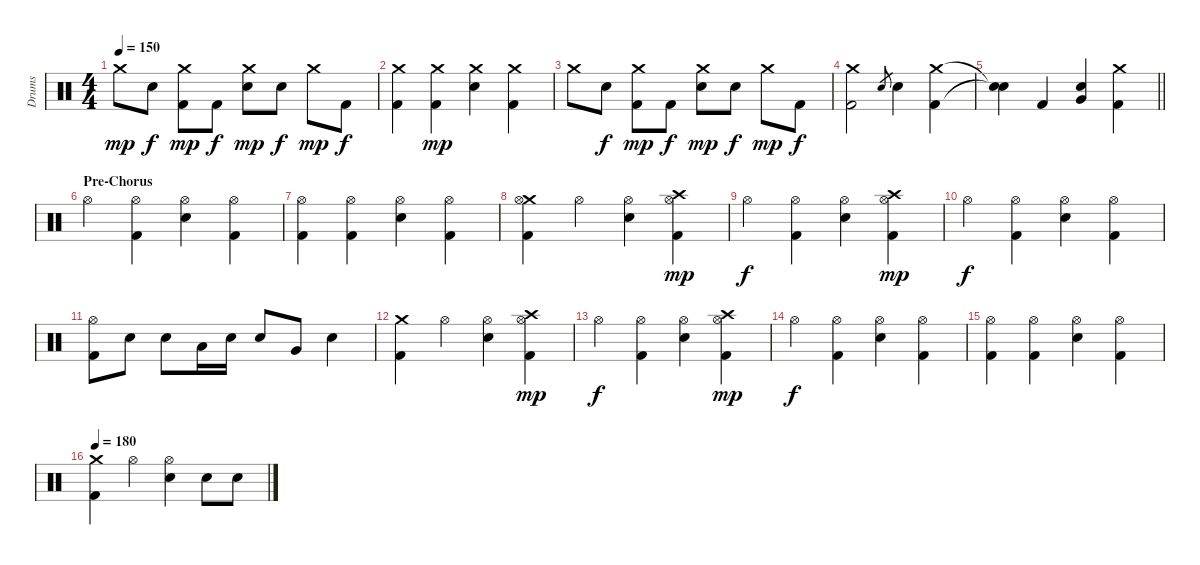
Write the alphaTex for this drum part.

\track ("Drums" "Drums") {instrument percussion}
\staff {score}
\articulation defaults
\ts (4 4)
\tempo 150
\clef neutral
\ks c "Crash medium (hit)".8{dy mp} "Snare (hit) 2".8{dy f}
("Crash medium (hit)" "Kick (hit) 2").8{dy mp} "Kick (hit) 2".8{dy f} ("Crash medium (hit)" "Snare (hit) 2").8{dy mp} "Snare (hit) 2".8{dy f} "Crash medium (hit)".8{dy mp} "Kick (hit) 2".8{dy f} |
("Crash medium (hit)" "Kick (hit) 2").4 ("Crash medium (hit)" "Kick (hit) 2").4{dy mp} ("Crash medium (hit)" "Snare (hit) 2").4 ("Crash medium (hit)" "Kick (hit) 2").4 |
"Crash medium (hit)".8 "Snare (hit) 2".8{dy f} ("Crash medium (hit)" "Kick (hit) 2").8{dy mp} "Kick (hit) 2".8{dy f} ("Crash medium (hit)" "Snare (hit) 2").8{dy mp} "Snare (hit) 2".8{dy f} "Crash medium (hit)".8{dy mp} "Kick (hit) 2".8{dy f} |
("Crash medium (hit)" "Kick (hit) 2").2 "Snare (hit) 2".8{gr} "Snare (hit) 2".4 ("Crash medium (hit)" "Kick (hit) 2").4 |
\barLineRight lightlight
("Snare (hit)"{t} "Snare (hit)"{t}).4 "Kick (hit) 2".4 ("Snare (hit) 2" "Very Low Tom (hit)").4 ("Crash medium (hit)" "Kick (hit) 2").4 |
\section ("" "Pre-Chorus")
"Hi-Hat (open)".4 ("Hi-Hat (open)" "Kick (hit) 2").4 ("Hi-Hat (open)" "Snare (hit) 2").4 ("Hi-Hat (open)" "Kick (hit) 2").4 |
("Hi-Hat (open)" "Kick (hit) 2").4 ("Hi-Hat (open)" "Kick (hit) 2").4 ("Hi-Hat (open)" "Snare (hit) 2").4 ("Hi-Hat (open)" "Kick (hit) 2").4 |
("Crash medium (hit)" "Hi-Hat (open)" "Kick (hit) 2").4 "Hi-Hat (open)".4 ("Hi-Hat (open)" "Snare (hit) 2").4 ("Crash high (hit)" "Hi-Hat (open)" "Kick (hit) 2").4{dy mp} |
"Hi-Hat (open)".4{dy f} ("Hi-Hat (open)" "Kick (hit) 2").4 ("Hi-Hat (open)" "Snare (hit) 2").4 ("Crash high (hit)" "Hi-Hat (open)" "Kick (hit) 2").4{dy mp} |
"Hi-Hat (open)".4{dy f} ("Hi-Hat (open)" "Kick (hit) 2").4 ("Hi-Hat (open)" "Snare (hit) 2").4 ("Hi-Hat (open)" "Kick (hit) 2").4 |
("Hi-Hat (open)" "Kick (hit) 2").8 "Snare (hit) 2".8 "Snare (hit) 2".8 "Low Tom (hit)".16 "Snare (hit) 2".16 "Snare (hit) 2".8 "Very Low Tom (hit)".8 "Snare (hit) 2".4 |
("Crash medium (hit)" "Kick (hit) 2").4 "Hi-Hat (open)".4 ("Hi-Hat (open)" "Snare (hit) 2").4 ("Crash high (hit)" "Hi-Hat (open)" "Kick (hit) 2").4{dy mp} |
"Hi-Hat (open)".4{dy f} ("Hi-Hat (open)" "Kick (hit) 2").4 ("Hi-Hat (open)" "Snare (hit) 2").4 ("Crash high (hit)" "Hi-Hat (open)" "Kick (hit) 2").4{dy mp} |
"Hi-Hat (open)".4{dy f} ("Hi-Hat (open)" "Kick (hit) 2").4 ("Hi-Hat (open)" "Snare (hit) 2").4 ("Hi-Hat (open)" "Kick (hit) 2").4 |
("Hi-Hat (open)" "Kick (hit) 2").4 ("Hi-Hat (open)" "Kick (hit) 2").4 ("Hi-Hat (open)" "Snare (hit) 2").4 ("Hi-Hat (open)" "Kick (hit) 2").4 |
\tempo 180
("Crash medium (hit)" "Kick (hit) 2").4 "Hi-Hat (open)".4 ("Hi-Hat (open)" "Snare (hit) 2").4 "Snare (hit) 2".8 "Snare (hit) 2".8
